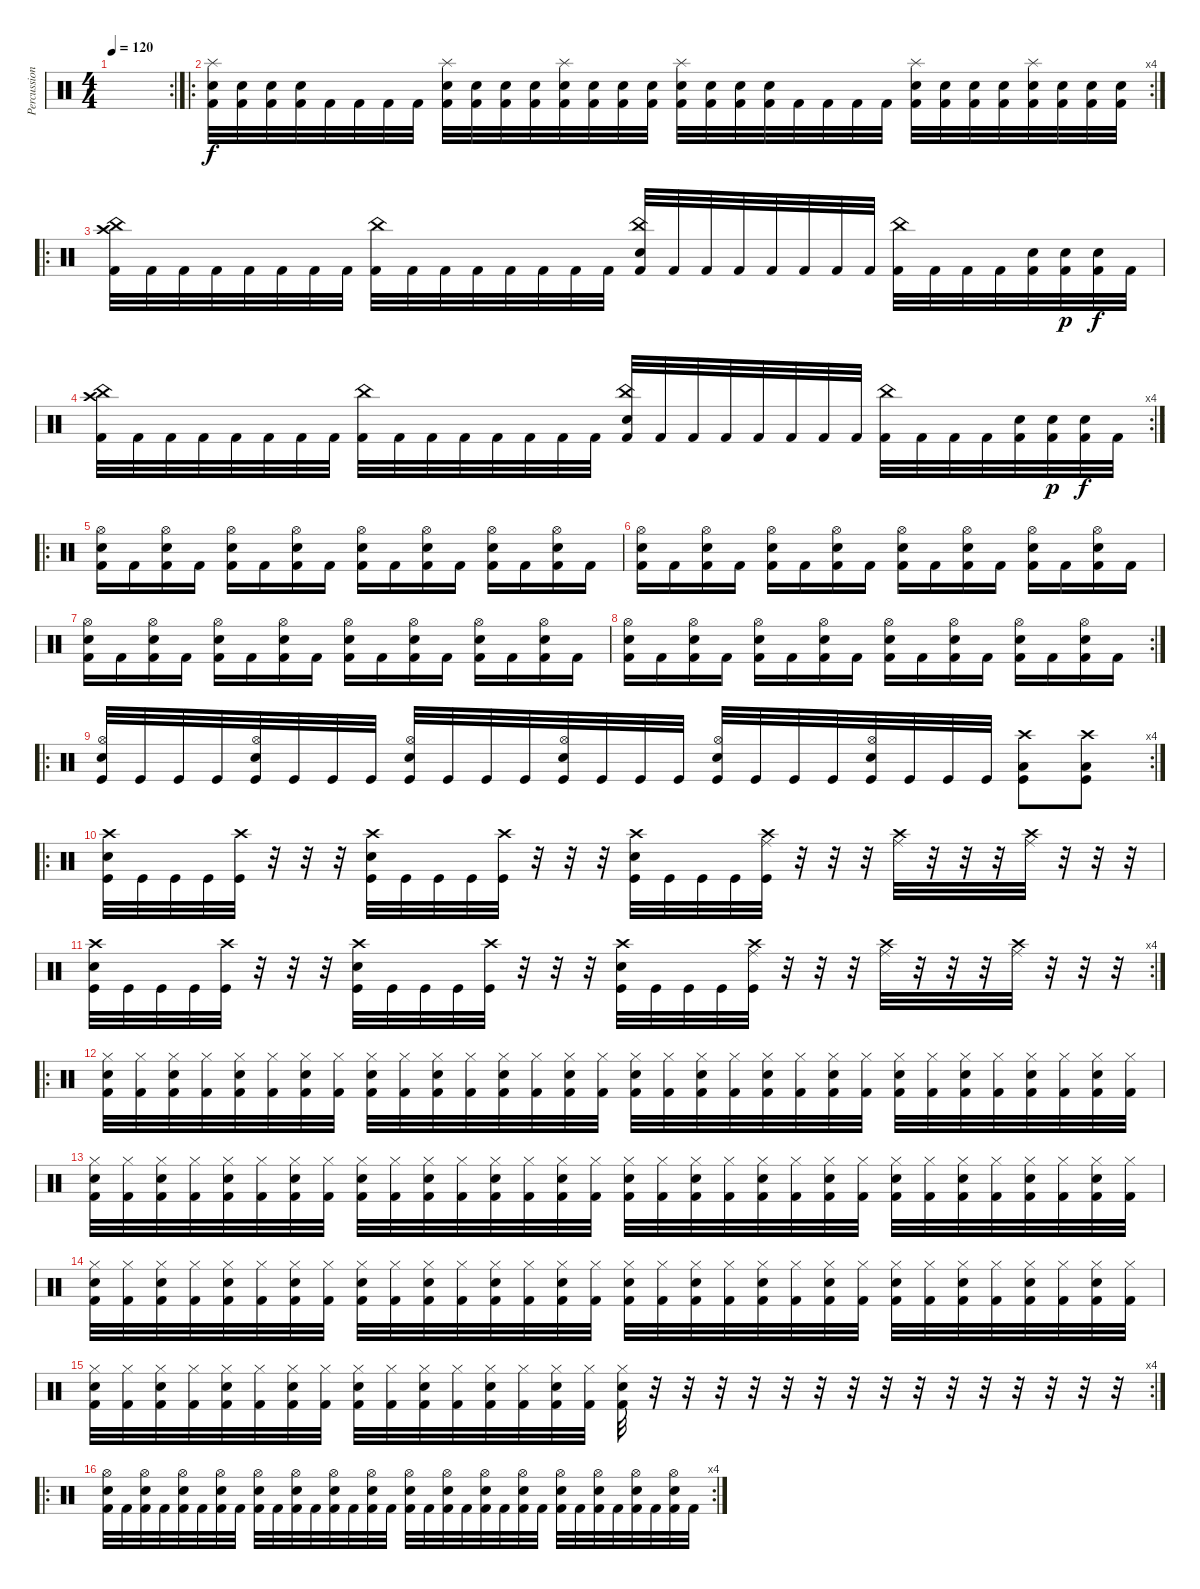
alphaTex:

\track ("Percussions" "Percussion") {instrument percussion}
\staff {score}
\articulation defaults
\rc 2
\ts (4 4)
\tempo 120
\clef neutral
\ks c
|
\ro
\rc 4
("Splash (hit)" "Electric Snare (hit)" "Kick (hit) 2").32 ("Electric Snare (hit)" "Kick (hit) 2").32 ("Electric Snare (hit)" "Kick (hit) 2").32 ("Electric Snare (hit)" "Kick (hit) 2").32 "Kick (hit) 2".32 "Kick (hit) 2".32 "Kick (hit) 2".32 "Kick (hit) 2".32 ("Splash (hit)" "Electric Snare (hit)" "Kick (hit) 2").32 ("Electric Snare (hit)" "Kick (hit) 2").32 ("Electric Snare (hit)" "Kick (hit) 2").32 ("Electric Snare (hit)" "Kick (hit) 2").32 ("Splash (hit)" "Electric Snare (hit)" "Kick (hit) 2").32 ("Electric Snare (hit)" "Kick (hit) 2").32 ("Electric Snare (hit)" "Kick (hit) 2").32 ("Electric Snare (hit)" "Kick (hit) 2").32 ("Splash (hit)" "Electric Snare (hit)" "Kick (hit) 2").32 ("Electric Snare (hit)" "Kick (hit) 2").32 ("Electric Snare (hit)" "Kick (hit) 2").32 ("Electric Snare (hit)" "Kick (hit) 2").32 "Kick (hit) 2".32 "Kick (hit) 2".32 "Kick (hit) 2".32 "Kick (hit) 2".32 ("Splash (hit)" "Electric Snare (hit)" "Kick (hit) 2").32 ("Electric Snare (hit)" "Kick (hit) 2").32 ("Electric Snare (hit)" "Kick (hit) 2").32 ("Electric Snare (hit)" "Kick (hit) 2").32 ("Splash (hit)" "Electric Snare (hit)" "Kick (hit) 2").32 ("Electric Snare (hit)" "Kick (hit) 2").32 ("Electric Snare (hit)" "Kick (hit) 2").32 ("Electric Snare (hit)" "Kick (hit) 2").32 |
\ro
("Crash high (hit)" "China (hit)" "Kick (hit) 2").32 "Kick (hit) 2".32 "Kick (hit) 2".32 "Kick (hit) 2".32 "Kick (hit) 2".32 "Kick (hit) 2".32 "Kick (hit) 2".32 "Kick (hit) 2".32 ("China (hit)" "Kick (hit) 2").32 "Kick (hit) 2".32 "Kick (hit) 2".32 "Kick (hit) 2".32 "Kick (hit) 2".32 "Kick (hit) 2".32 "Kick (hit) 2".32 "Kick (hit) 2".32 ("China (hit)" "Snare (hit) 2" "Kick (hit) 2").32 "Kick (hit) 2".32 "Kick (hit) 2".32 "Kick (hit) 2".32 "Kick (hit) 2".32 "Kick (hit) 2".32 "Kick (hit) 2".32 "Kick (hit) 2".32 ("China (hit)" "Kick (hit) 2").32 "Kick (hit) 2".32 "Kick (hit) 2".32 "Kick (hit) 2".32 ("Snare (hit) 2" "Kick (hit) 2").32 ("Snare (hit) 2" "Kick (hit) 2").32{dy p} ("Snare (hit) 2" "Kick (hit) 2").32{dy f} "Kick (hit) 2".32 |
\rc 4
("Crash high (hit)" "China (hit)" "Kick (hit) 2").32 "Kick (hit) 2".32 "Kick (hit) 2".32 "Kick (hit) 2".32 "Kick (hit) 2".32 "Kick (hit) 2".32 "Kick (hit) 2".32 "Kick (hit) 2".32 ("China (hit)" "Kick (hit) 2").32 "Kick (hit) 2".32 "Kick (hit) 2".32 "Kick (hit) 2".32 "Kick (hit) 2".32 "Kick (hit) 2".32 "Kick (hit) 2".32 "Kick (hit) 2".32 ("China (hit)" "Snare (hit) 2" "Kick (hit) 2").32 "Kick (hit) 2".32 "Kick (hit) 2".32 "Kick (hit) 2".32 "Kick (hit) 2".32 "Kick (hit) 2".32 "Kick (hit) 2".32 "Kick (hit) 2".32 ("China (hit)" "Kick (hit) 2").32 "Kick (hit) 2".32 "Kick (hit) 2".32 "Kick (hit) 2".32 ("Snare (hit) 2" "Kick (hit) 2").32 ("Snare (hit) 2" "Kick (hit) 2").32{dy p} ("Snare (hit) 2" "Kick (hit) 2").32{dy f} "Kick (hit) 2".32 |
\ro
("Hi-Hat (open)" "Electric Snare (hit)" "Kick (hit) 2").16 "Kick (hit) 2".16 ("Hi-Hat (open)" "Electric Snare (hit)" "Kick (hit) 2").16 "Kick (hit) 2".16 ("Hi-Hat (open)" "Electric Snare (hit)" "Kick (hit) 2").16 "Kick (hit) 2".16 ("Hi-Hat (open)" "Electric Snare (hit)" "Kick (hit) 2").16 "Kick (hit) 2".16 ("Hi-Hat (open)" "Electric Snare (hit)" "Kick (hit) 2").16 "Kick (hit) 2".16 ("Hi-Hat (open)" "Electric Snare (hit)" "Kick (hit) 2").16 "Kick (hit) 2".16 ("Hi-Hat (open)" "Electric Snare (hit)" "Kick (hit) 2").16 "Kick (hit) 2".16 ("Hi-Hat (open)" "Electric Snare (hit)" "Kick (hit) 2").16 "Kick (hit) 2".16 |
("Hi-Hat (open)" "Electric Snare (hit)" "Kick (hit) 2").16 "Kick (hit) 2".16 ("Hi-Hat (open)" "Electric Snare (hit)" "Kick (hit) 2").16 "Kick (hit) 2".16 ("Hi-Hat (open)" "Electric Snare (hit)" "Kick (hit) 2").16 "Kick (hit) 2".16 ("Hi-Hat (open)" "Electric Snare (hit)" "Kick (hit) 2").16 "Kick (hit) 2".16 ("Hi-Hat (open)" "Electric Snare (hit)" "Kick (hit) 2").16 "Kick (hit) 2".16 ("Hi-Hat (open)" "Electric Snare (hit)" "Kick (hit) 2").16 "Kick (hit) 2".16 ("Hi-Hat (open)" "Electric Snare (hit)" "Kick (hit) 2").16 "Kick (hit) 2".16 ("Hi-Hat (open)" "Electric Snare (hit)" "Kick (hit) 2").16 "Kick (hit) 2".16 |
("Hi-Hat (open)" "Electric Snare (hit)" "Kick (hit) 2").16 "Kick (hit) 2".16 ("Hi-Hat (open)" "Electric Snare (hit)" "Kick (hit) 2").16 "Kick (hit) 2".16 ("Hi-Hat (open)" "Electric Snare (hit)" "Kick (hit) 2").16 "Kick (hit) 2".16 ("Hi-Hat (open)" "Electric Snare (hit)" "Kick (hit) 2").16 "Kick (hit) 2".16 ("Hi-Hat (open)" "Electric Snare (hit)" "Kick (hit) 2").16 "Kick (hit) 2".16 ("Hi-Hat (open)" "Electric Snare (hit)" "Kick (hit) 2").16 "Kick (hit) 2".16 ("Hi-Hat (open)" "Electric Snare (hit)" "Kick (hit) 2").16 "Kick (hit) 2".16 ("Hi-Hat (open)" "Electric Snare (hit)" "Kick (hit) 2").16 "Kick (hit) 2".16 |
\rc 2
("Hi-Hat (open)" "Electric Snare (hit)" "Kick (hit) 2").16 "Kick (hit) 2".16 ("Hi-Hat (open)" "Electric Snare (hit)" "Kick (hit) 2").16 "Kick (hit) 2".16 ("Hi-Hat (open)" "Electric Snare (hit)" "Kick (hit) 2").16 "Kick (hit) 2".16 ("Hi-Hat (open)" "Electric Snare (hit)" "Kick (hit) 2").16 "Kick (hit) 2".16 ("Hi-Hat (open)" "Electric Snare (hit)" "Kick (hit) 2").16 "Kick (hit) 2".16 ("Hi-Hat (open)" "Electric Snare (hit)" "Kick (hit) 2").16 "Kick (hit) 2".16 ("Hi-Hat (open)" "Electric Snare (hit)" "Kick (hit) 2").16 "Kick (hit) 2".16 ("Hi-Hat (open)" "Electric Snare (hit)" "Kick (hit) 2").16 "Kick (hit) 2".16 |
\ro
\rc 4
("Hi-Hat (open)" "Electric Snare (hit)" "Kick (hit)").32 "Kick (hit)".32 "Kick (hit)".32 "Kick (hit)".32 ("Hi-Hat (open)" "Electric Snare (hit)" "Kick (hit)").32 "Kick (hit)".32 "Kick (hit)".32 "Kick (hit)".32 ("Hi-Hat (open)" "Electric Snare (hit)" "Kick (hit)").32 "Kick (hit)".32 "Kick (hit)".32 "Kick (hit)".32 ("Hi-Hat (open)" "Electric Snare (hit)" "Kick (hit)").32 "Kick (hit)".32 "Kick (hit)".32 "Kick (hit)".32 ("Hi-Hat (open)" "Electric Snare (hit)" "Kick (hit)").32 "Kick (hit)".32 "Kick (hit)".32 "Kick (hit)".32 ("Hi-Hat (open)" "Electric Snare (hit)" "Kick (hit)").32 "Kick (hit)".32 "Kick (hit)".32 "Kick (hit)".32 ("Crash high (hit)" "Low Floor Tom (hit)" "Kick (hit)").8 ("Crash high (hit)" "Low Floor Tom (hit)" "Kick (hit)").8 |
\ro
("Crash high (hit)" "Electric Snare (hit)" "Kick (hit)").32 "Kick (hit)".32 "Kick (hit)".32 "Kick (hit)".32 ("Crash high (hit)" "Kick (hit)").32 r.32 r.32 r.32 ("Crash high (hit)" "Electric Snare (hit)" "Kick (hit)").32 "Kick (hit)".32 "Kick (hit)".32 "Kick (hit)".32 ("Crash high (hit)" "Kick (hit)").32 r.32 r.32 r.32 ("Crash high (hit)" "Electric Snare (hit)" "Kick (hit)").32 "Kick (hit)".32 "Kick (hit)".32 "Kick (hit)".32 ("Crash high (hit)" "Ride (middle)" "Kick (hit)").32 r.32 r.32 r.32 ("Crash high (hit)" "Ride (middle)").32 r.32 r.32 r.32 ("Crash high (hit)" "Ride (middle)").32 r.32 r.32 r.32 |
\rc 4
("Crash high (hit)" "Electric Snare (hit)" "Kick (hit)").32 "Kick (hit)".32 "Kick (hit)".32 "Kick (hit)".32 ("Crash high (hit)" "Kick (hit)").32 r.32 r.32 r.32 ("Crash high (hit)" "Electric Snare (hit)" "Kick (hit)").32 "Kick (hit)".32 "Kick (hit)".32 "Kick (hit)".32 ("Crash high (hit)" "Kick (hit)").32 r.32 r.32 r.32 ("Crash high (hit)" "Electric Snare (hit)" "Kick (hit)").32 "Kick (hit)".32 "Kick (hit)".32 "Kick (hit)".32 ("Crash high (hit)" "Ride (middle)" "Kick (hit)").32 r.32 r.32 r.32 ("Crash high (hit)" "Ride (middle)").32 r.32 r.32 r.32 ("Crash high (hit)" "Ride (middle)").32 r.32 r.32 r.32 |
\ro
("Kick (hit) 2" "Electric Snare (hit)" "Hi-Hat (closed)").32 ("Kick (hit) 2" "Hi-Hat (closed)").32 ("Kick (hit) 2" "Electric Snare (hit)" "Hi-Hat (closed)").32 ("Kick (hit) 2" "Hi-Hat (closed)").32 ("Kick (hit) 2" "Electric Snare (hit)" "Hi-Hat (closed)").32 ("Kick (hit) 2" "Hi-Hat (closed)").32 ("Kick (hit) 2" "Electric Snare (hit)" "Hi-Hat (closed)").32 ("Kick (hit) 2" "Hi-Hat (closed)").32 ("Kick (hit) 2" "Electric Snare (hit)" "Hi-Hat (closed)").32 ("Kick (hit) 2" "Hi-Hat (closed)").32 ("Kick (hit) 2" "Electric Snare (hit)" "Hi-Hat (closed)").32 ("Kick (hit) 2" "Hi-Hat (closed)").32 ("Kick (hit) 2" "Electric Snare (hit)" "Hi-Hat (closed)").32 ("Kick (hit) 2" "Hi-Hat (closed)").32 ("Kick (hit) 2" "Electric Snare (hit)" "Hi-Hat (closed)").32 ("Kick (hit) 2" "Hi-Hat (closed)").32 ("Kick (hit) 2" "Electric Snare (hit)" "Hi-Hat (closed)").32 ("Kick (hit) 2" "Hi-Hat (closed)").32 ("Kick (hit) 2" "Electric Snare (hit)" "Hi-Hat (closed)").32 ("Kick (hit) 2" "Hi-Hat (closed)").32 ("Kick (hit) 2" "Electric Snare (hit)" "Hi-Hat (closed)").32 ("Kick (hit) 2" "Hi-Hat (closed)").32 ("Kick (hit) 2" "Electric Snare (hit)" "Hi-Hat (closed)").32 ("Kick (hit) 2" "Hi-Hat (closed)").32 ("Kick (hit) 2" "Electric Snare (hit)" "Hi-Hat (closed)").32 ("Kick (hit) 2" "Hi-Hat (closed)").32 ("Kick (hit) 2" "Electric Snare (hit)" "Hi-Hat (closed)").32 ("Kick (hit) 2" "Hi-Hat (closed)").32 ("Kick (hit) 2" "Electric Snare (hit)" "Hi-Hat (closed)").32 ("Kick (hit) 2" "Hi-Hat (closed)").32 ("Kick (hit) 2" "Electric Snare (hit)" "Hi-Hat (closed)").32 ("Kick (hit) 2" "Hi-Hat (closed)").32 |
("Kick (hit) 2" "Electric Snare (hit)" "Hi-Hat (closed)").32 ("Kick (hit) 2" "Hi-Hat (closed)").32 ("Kick (hit) 2" "Electric Snare (hit)" "Hi-Hat (closed)").32 ("Kick (hit) 2" "Hi-Hat (closed)").32 ("Kick (hit) 2" "Electric Snare (hit)" "Hi-Hat (closed)").32 ("Kick (hit) 2" "Hi-Hat (closed)").32 ("Kick (hit) 2" "Electric Snare (hit)" "Hi-Hat (closed)").32 ("Kick (hit) 2" "Hi-Hat (closed)").32 ("Kick (hit) 2" "Electric Snare (hit)" "Hi-Hat (closed)").32 ("Kick (hit) 2" "Hi-Hat (closed)").32 ("Kick (hit) 2" "Electric Snare (hit)" "Hi-Hat (closed)").32 ("Kick (hit) 2" "Hi-Hat (closed)").32 ("Kick (hit) 2" "Electric Snare (hit)" "Hi-Hat (closed)").32 ("Kick (hit) 2" "Hi-Hat (closed)").32 ("Kick (hit) 2" "Electric Snare (hit)" "Hi-Hat (closed)").32 ("Kick (hit) 2" "Hi-Hat (closed)").32 ("Kick (hit) 2" "Electric Snare (hit)" "Hi-Hat (closed)").32 ("Kick (hit) 2" "Hi-Hat (closed)").32 ("Kick (hit) 2" "Electric Snare (hit)" "Hi-Hat (closed)").32 ("Kick (hit) 2" "Hi-Hat (closed)").32 ("Kick (hit) 2" "Electric Snare (hit)" "Hi-Hat (closed)").32 ("Kick (hit) 2" "Hi-Hat (closed)").32 ("Kick (hit) 2" "Electric Snare (hit)" "Hi-Hat (closed)").32 ("Kick (hit) 2" "Hi-Hat (closed)").32 ("Kick (hit) 2" "Electric Snare (hit)" "Hi-Hat (closed)").32 ("Kick (hit) 2" "Hi-Hat (closed)").32 ("Kick (hit) 2" "Electric Snare (hit)" "Hi-Hat (closed)").32 ("Kick (hit) 2" "Hi-Hat (closed)").32 ("Kick (hit) 2" "Electric Snare (hit)" "Hi-Hat (closed)").32 ("Kick (hit) 2" "Hi-Hat (closed)").32 ("Kick (hit) 2" "Electric Snare (hit)" "Hi-Hat (closed)").32 ("Kick (hit) 2" "Hi-Hat (closed)").32 |
("Kick (hit) 2" "Electric Snare (hit)" "Hi-Hat (closed)").32 ("Kick (hit) 2" "Hi-Hat (closed)").32 ("Kick (hit) 2" "Electric Snare (hit)" "Hi-Hat (closed)").32 ("Kick (hit) 2" "Hi-Hat (closed)").32 ("Kick (hit) 2" "Electric Snare (hit)" "Hi-Hat (closed)").32 ("Kick (hit) 2" "Hi-Hat (closed)").32 ("Kick (hit) 2" "Electric Snare (hit)" "Hi-Hat (closed)").32 ("Kick (hit) 2" "Hi-Hat (closed)").32 ("Kick (hit) 2" "Electric Snare (hit)" "Hi-Hat (closed)").32 ("Kick (hit) 2" "Hi-Hat (closed)").32 ("Kick (hit) 2" "Electric Snare (hit)" "Hi-Hat (closed)").32 ("Kick (hit) 2" "Hi-Hat (closed)").32 ("Kick (hit) 2" "Electric Snare (hit)" "Hi-Hat (closed)").32 ("Kick (hit) 2" "Hi-Hat (closed)").32 ("Kick (hit) 2" "Electric Snare (hit)" "Hi-Hat (closed)").32 ("Kick (hit) 2" "Hi-Hat (closed)").32 ("Kick (hit) 2" "Electric Snare (hit)" "Hi-Hat (closed)").32 ("Kick (hit) 2" "Hi-Hat (closed)").32 ("Kick (hit) 2" "Electric Snare (hit)" "Hi-Hat (closed)").32 ("Kick (hit) 2" "Hi-Hat (closed)").32 ("Kick (hit) 2" "Electric Snare (hit)" "Hi-Hat (closed)").32 ("Kick (hit) 2" "Hi-Hat (closed)").32 ("Kick (hit) 2" "Electric Snare (hit)" "Hi-Hat (closed)").32 ("Kick (hit) 2" "Hi-Hat (closed)").32 ("Kick (hit) 2" "Electric Snare (hit)" "Hi-Hat (closed)").32 ("Kick (hit) 2" "Hi-Hat (closed)").32 ("Kick (hit) 2" "Electric Snare (hit)" "Hi-Hat (closed)").32 ("Kick (hit) 2" "Hi-Hat (closed)").32 ("Kick (hit) 2" "Electric Snare (hit)" "Hi-Hat (closed)").32 ("Kick (hit) 2" "Hi-Hat (closed)").32 ("Kick (hit) 2" "Electric Snare (hit)" "Hi-Hat (closed)").32 ("Kick (hit) 2" "Hi-Hat (closed)").32 |
\rc 4
("Kick (hit) 2" "Electric Snare (hit)" "Hi-Hat (closed)").32 ("Kick (hit) 2" "Hi-Hat (closed)").32 ("Kick (hit) 2" "Electric Snare (hit)" "Hi-Hat (closed)").32 ("Kick (hit) 2" "Hi-Hat (closed)").32 ("Kick (hit) 2" "Electric Snare (hit)" "Hi-Hat (closed)").32 ("Kick (hit) 2" "Hi-Hat (closed)").32 ("Kick (hit) 2" "Electric Snare (hit)" "Hi-Hat (closed)").32 ("Kick (hit) 2" "Hi-Hat (closed)").32 ("Kick (hit) 2" "Electric Snare (hit)" "Hi-Hat (closed)").32 ("Kick (hit) 2" "Hi-Hat (closed)").32 ("Kick (hit) 2" "Electric Snare (hit)" "Hi-Hat (closed)").32 ("Kick (hit) 2" "Hi-Hat (closed)").32 ("Kick (hit) 2" "Electric Snare (hit)" "Hi-Hat (closed)").32 ("Kick (hit) 2" "Hi-Hat (closed)").32 ("Kick (hit) 2" "Electric Snare (hit)" "Hi-Hat (closed)").32 ("Kick (hit) 2" "Hi-Hat (closed)").32 ("Kick (hit) 2" "Electric Snare (hit)" "Hi-Hat (closed)").32 r.32 r.32 r.32 r.32 r.32 r.32 r.32 r.32 r.32 r.32 r.32 r.32 r.32 r.32 r.32 |
\ro
\rc 4
("Hi-Hat (open)" "Electric Snare (hit)" "Kick (hit) 2").32 "Kick (hit) 2".32 ("Hi-Hat (open)" "Electric Snare (hit)" "Kick (hit) 2").32 "Kick (hit) 2".32 ("Hi-Hat (open)" "Electric Snare (hit)" "Kick (hit) 2").32 "Kick (hit) 2".32 ("Hi-Hat (open)" "Electric Snare (hit)" "Kick (hit) 2").32 "Kick (hit) 2".32 ("Hi-Hat (open)" "Electric Snare (hit)" "Kick (hit) 2").32 "Kick (hit) 2".32 ("Hi-Hat (open)" "Electric Snare (hit)" "Kick (hit) 2").32 "Kick (hit) 2".32 ("Hi-Hat (open)" "Electric Snare (hit)" "Kick (hit) 2").32 "Kick (hit) 2".32 ("Hi-Hat (open)" "Electric Snare (hit)" "Kick (hit) 2").32 "Kick (hit) 2".32 ("Hi-Hat (open)" "Electric Snare (hit)" "Kick (hit) 2").32 "Kick (hit) 2".32 ("Hi-Hat (open)" "Electric Snare (hit)" "Kick (hit) 2").32 "Kick (hit) 2".32 ("Hi-Hat (open)" "Electric Snare (hit)" "Kick (hit) 2").32 "Kick (hit) 2".32 ("Hi-Hat (open)" "Electric Snare (hit)" "Kick (hit) 2").32 "Kick (hit) 2".32 ("Hi-Hat (open)" "Electric Snare (hit)" "Kick (hit) 2").32 "Kick (hit) 2".32 ("Hi-Hat (open)" "Electric Snare (hit)" "Kick (hit) 2").32 "Kick (hit) 2".32 ("Hi-Hat (open)" "Electric Snare (hit)" "Kick (hit) 2").32 "Kick (hit) 2".32 ("Hi-Hat (open)" "Electric Snare (hit)" "Kick (hit) 2").32 "Kick (hit) 2".32
